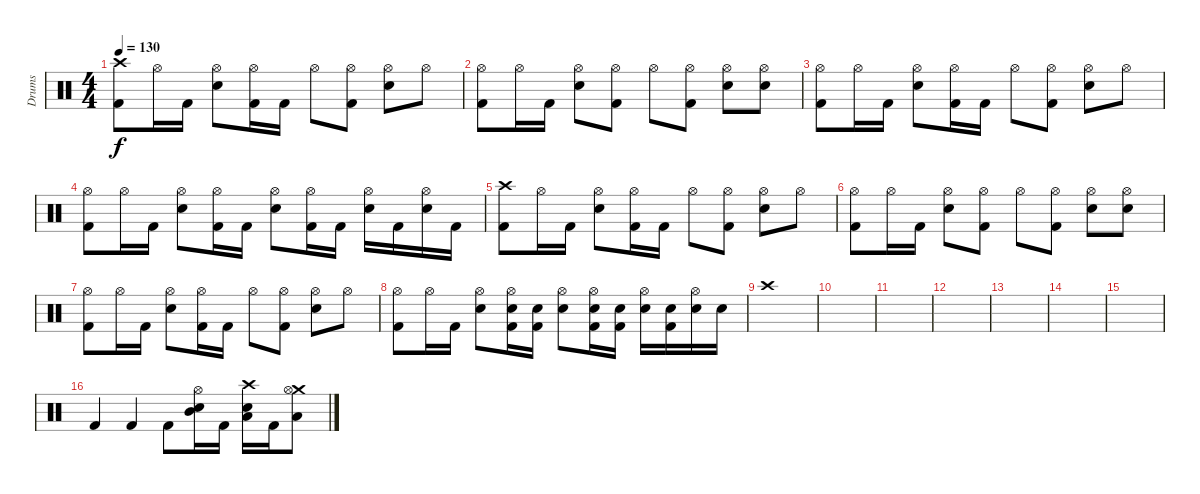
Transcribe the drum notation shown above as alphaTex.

\track ("Drums" "Drums") {instrument percussion}
\staff {score}
\articulation defaults
\ts (4 4)
\tempo 130
\clef neutral
\ks c
("Crash high (hit)" "Kick (hit) 2").8{dy f} "Hi-Hat (open)".16 "Kick (hit) 2".16 ("Hi-Hat (open)" "Electric Snare (hit)").8 ("Hi-Hat (open)" "Kick (hit) 2").16 "Kick (hit) 2".16 "Hi-Hat (open)".8 ("Hi-Hat (open)" "Kick (hit) 2").8 ("Hi-Hat (open)" "Electric Snare (hit)").8 "Hi-Hat (open)".8 |
("Hi-Hat (open)" "Kick (hit) 2").8 "Hi-Hat (open)".16 "Kick (hit) 2".16 ("Hi-Hat (open)" "Electric Snare (hit)").8 ("Hi-Hat (open)" "Kick (hit) 2").8 "Hi-Hat (open)".8 ("Hi-Hat (open)" "Kick (hit) 2").8 ("Hi-Hat (open)" "Electric Snare (hit)").8 ("Hi-Hat (open)" "Electric Snare (hit)").8 |
("Hi-Hat (open)" "Kick (hit) 2").8 "Hi-Hat (open)".16 "Kick (hit) 2".16 ("Hi-Hat (open)" "Electric Snare (hit)").8 ("Hi-Hat (open)" "Kick (hit) 2").16 "Kick (hit) 2".16 "Hi-Hat (open)".8 ("Hi-Hat (open)" "Kick (hit) 2").8 ("Hi-Hat (open)" "Electric Snare (hit)").8 "Hi-Hat (open)".8 |
("Hi-Hat (open)" "Kick (hit) 2").8 "Hi-Hat (open)".16 "Kick (hit) 2".16 ("Hi-Hat (open)" "Electric Snare (hit)").8 ("Hi-Hat (open)" "Kick (hit) 2").16 "Kick (hit) 2".16 ("Hi-Hat (open)" "Electric Snare (hit)").8 ("Hi-Hat (open)" "Kick (hit) 2").16 "Kick (hit) 2".16 ("Hi-Hat (open)" "Electric Snare (hit)").16 "Kick (hit) 2".16 ("Hi-Hat (open)" "Electric Snare (hit)").16 "Kick (hit) 2".16 |
("Crash high (hit)" "Kick (hit) 2").8 "Hi-Hat (open)".16 "Kick (hit) 2".16 ("Hi-Hat (open)" "Electric Snare (hit)").8 ("Hi-Hat (open)" "Kick (hit) 2").16 "Kick (hit) 2".16 "Hi-Hat (open)".8 ("Hi-Hat (open)" "Kick (hit) 2").8 ("Hi-Hat (open)" "Electric Snare (hit)").8 "Hi-Hat (open)".8 |
("Hi-Hat (open)" "Kick (hit) 2").8 "Hi-Hat (open)".16 "Kick (hit) 2".16 ("Hi-Hat (open)" "Electric Snare (hit)").8 ("Hi-Hat (open)" "Kick (hit) 2").8 "Hi-Hat (open)".8 ("Hi-Hat (open)" "Kick (hit) 2").8 ("Hi-Hat (open)" "Electric Snare (hit)").8 ("Hi-Hat (open)" "Electric Snare (hit)").8 |
("Hi-Hat (open)" "Kick (hit) 2").8 "Hi-Hat (open)".16 "Kick (hit) 2".16 ("Hi-Hat (open)" "Electric Snare (hit)").8 ("Hi-Hat (open)" "Kick (hit) 2").16 "Kick (hit) 2".16 "Hi-Hat (open)".8 ("Hi-Hat (open)" "Kick (hit) 2").8 ("Hi-Hat (open)" "Electric Snare (hit)").8 "Hi-Hat (open)".8 |
("Hi-Hat (open)" "Kick (hit) 2").8 "Hi-Hat (open)".16 "Kick (hit) 2".16 ("Hi-Hat (open)" "Electric Snare (hit)").8 ("Hi-Hat (open)" "Electric Snare (hit)" "Kick (hit) 2").16 ("Electric Snare (hit)" "Kick (hit) 2").16 ("Hi-Hat (open)" "Electric Snare (hit)").8 ("Hi-Hat (open)" "Electric Snare (hit)" "Kick (hit) 2").16 ("Electric Snare (hit)" "Kick (hit) 2").16 ("Hi-Hat (open)" "Electric Snare (hit)").16 ("Electric Snare (hit)" "Kick (hit) 2").16 ("Hi-Hat (open)" "Electric Snare (hit)").16 "Electric Snare (hit)".16 |
"Crash high (hit)".1 |
|
|
|
|
|
|
"Kick (hit) 2".4 "Kick (hit) 2".4 "Kick (hit) 2".8 ("Mid Tom (hit)" "Hi-Hat (open)" "Electric Snare (hit)").16 "Kick (hit) 2".16 ("Low Tom (hit)" "Crash high (hit)" "Electric Snare (hit)").16 "Kick (hit) 2".16 ("Low Floor Tom (hit)" "Crash medium (hit)" "Hi-Hat (open)").8
